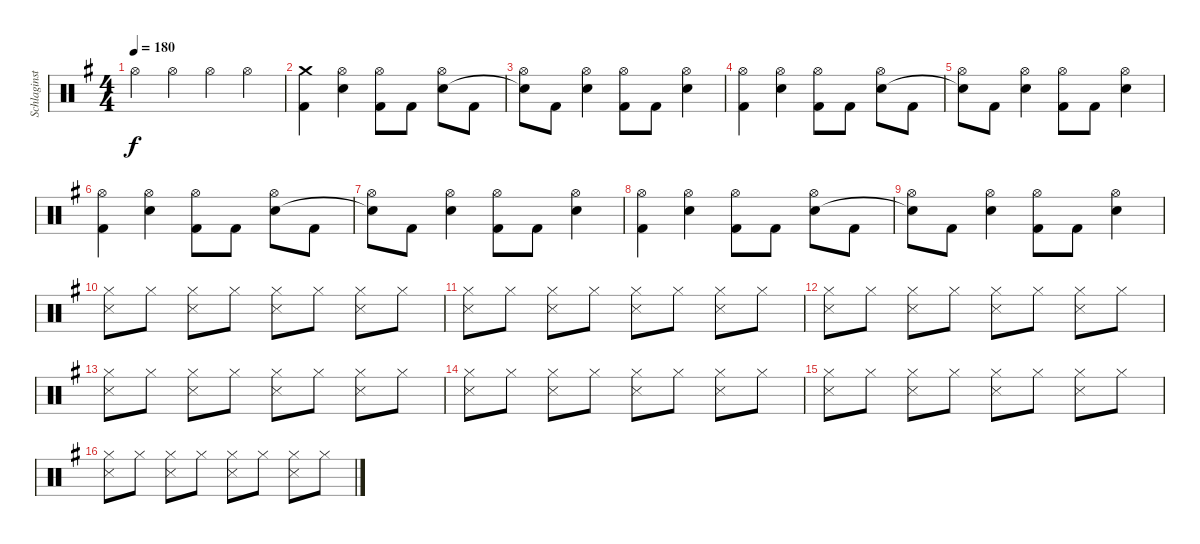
\track ("Schlaginstrumente - Auswahl" "Schlaginst") {instrument percussion}
\staff {score}
\articulation defaults
\ts (4 4)
\tempo 180
\clef neutral
\ks g "Hi-Hat (open)".4{dy f} "Hi-Hat (open)".4 "Hi-Hat (open)".4 "Hi-Hat (open)".4
|
("Crash medium (hit)" "Kick (hit) 2").4 ("Hi-Hat (open)" "Electric Snare (hit)").4 ("Hi-Hat (open)" "Kick (hit) 2").8 "Kick (hit) 2".8 ("Hi-Hat (open)" "Electric Snare (hit)").8 "Kick (hit) 2".8 |
("Hi-Hat (open)" "Snare (hit)"{t}).8 "Kick (hit) 2".8 ("Hi-Hat (open)" "Electric Snare (hit)").4 ("Hi-Hat (open)" "Kick (hit) 2").8 "Kick (hit) 2".8 ("Hi-Hat (open)" "Electric Snare (hit)").4 |
("Hi-Hat (open)" "Kick (hit) 2").4 ("Hi-Hat (open)" "Electric Snare (hit)").4 ("Hi-Hat (open)" "Kick (hit) 2").8 "Kick (hit) 2".8 ("Hi-Hat (open)" "Electric Snare (hit)").8 "Kick (hit) 2".8 |
("Hi-Hat (open)" "Snare (hit)"{t}).8 "Kick (hit) 2".8 ("Hi-Hat (open)" "Electric Snare (hit)").4 ("Hi-Hat (open)" "Kick (hit) 2").8 "Kick (hit) 2".8 ("Hi-Hat (open)" "Electric Snare (hit)").4 |
("Hi-Hat (open)" "Kick (hit) 2").4 ("Hi-Hat (open)" "Electric Snare (hit)").4 ("Hi-Hat (open)" "Kick (hit) 2").8 "Kick (hit) 2".8 ("Hi-Hat (open)" "Electric Snare (hit)").8 "Kick (hit) 2".8 |
("Hi-Hat (open)" "Snare (hit)"{t}).8 "Kick (hit) 2".8 ("Hi-Hat (open)" "Electric Snare (hit)").4 ("Hi-Hat (open)" "Kick (hit) 2").8 "Kick (hit) 2".8 ("Hi-Hat (open)" "Electric Snare (hit)").4 |
("Hi-Hat (open)" "Kick (hit) 2").4 ("Hi-Hat (open)" "Electric Snare (hit)").4 ("Hi-Hat (open)" "Kick (hit) 2").8 "Kick (hit) 2".8 ("Hi-Hat (open)" "Electric Snare (hit)").8 "Kick (hit) 2".8 |
("Hi-Hat (open)" "Snare (hit)"{t}).8 "Kick (hit) 2".8 ("Hi-Hat (open)" "Electric Snare (hit)").4 ("Hi-Hat (open)" "Kick (hit) 2").8 "Kick (hit) 2".8 ("Hi-Hat (open)" "Electric Snare (hit)").4 |
("Hi-Hat (closed)" "Snare (side stick) 3").8 "Hi-Hat (closed)".8 ("Hi-Hat (closed)" "Snare (side stick) 3").8 "Hi-Hat (closed)".8 ("Hi-Hat (closed)" "Snare (side stick) 3").8 "Hi-Hat (closed)".8 ("Hi-Hat (closed)" "Snare (side stick) 3").8 "Hi-Hat (closed)".8 |
("Hi-Hat (closed)" "Snare (side stick) 3").8 "Hi-Hat (closed)".8 ("Hi-Hat (closed)" "Snare (side stick) 3").8 "Hi-Hat (closed)".8 ("Hi-Hat (closed)" "Snare (side stick) 3").8 "Hi-Hat (closed)".8 ("Hi-Hat (closed)" "Snare (side stick) 3").8 "Hi-Hat (closed)".8 |
("Hi-Hat (closed)" "Snare (side stick) 3").8 "Hi-Hat (closed)".8 ("Hi-Hat (closed)" "Snare (side stick) 3").8 "Hi-Hat (closed)".8 ("Hi-Hat (closed)" "Snare (side stick) 3").8 "Hi-Hat (closed)".8 ("Hi-Hat (closed)" "Snare (side stick) 3").8 "Hi-Hat (closed)".8 |
("Hi-Hat (closed)" "Snare (side stick) 3").8 "Hi-Hat (closed)".8 ("Hi-Hat (closed)" "Snare (side stick) 3").8 "Hi-Hat (closed)".8 ("Hi-Hat (closed)" "Snare (side stick) 3").8 "Hi-Hat (closed)".8 ("Hi-Hat (closed)" "Snare (side stick) 3").8 "Hi-Hat (closed)".8 |
("Hi-Hat (closed)" "Snare (side stick) 3").8 "Hi-Hat (closed)".8 ("Hi-Hat (closed)" "Snare (side stick) 3").8 "Hi-Hat (closed)".8 ("Hi-Hat (closed)" "Snare (side stick) 3").8 "Hi-Hat (closed)".8 ("Hi-Hat (closed)" "Snare (side stick) 3").8 "Hi-Hat (closed)".8 |
("Hi-Hat (closed)" "Snare (side stick) 3").8 "Hi-Hat (closed)".8 ("Hi-Hat (closed)" "Snare (side stick) 3").8 "Hi-Hat (closed)".8 ("Hi-Hat (closed)" "Snare (side stick) 3").8 "Hi-Hat (closed)".8 ("Hi-Hat (closed)" "Snare (side stick) 3").8 "Hi-Hat (closed)".8 |
("Hi-Hat (closed)" "Snare (side stick) 3").8 "Hi-Hat (closed)".8 ("Hi-Hat (closed)" "Snare (side stick) 3").8 "Hi-Hat (closed)".8 ("Hi-Hat (closed)" "Snare (side stick) 3").8 "Hi-Hat (closed)".8 ("Hi-Hat (closed)" "Snare (side stick) 3").8 "Hi-Hat (closed)".8
